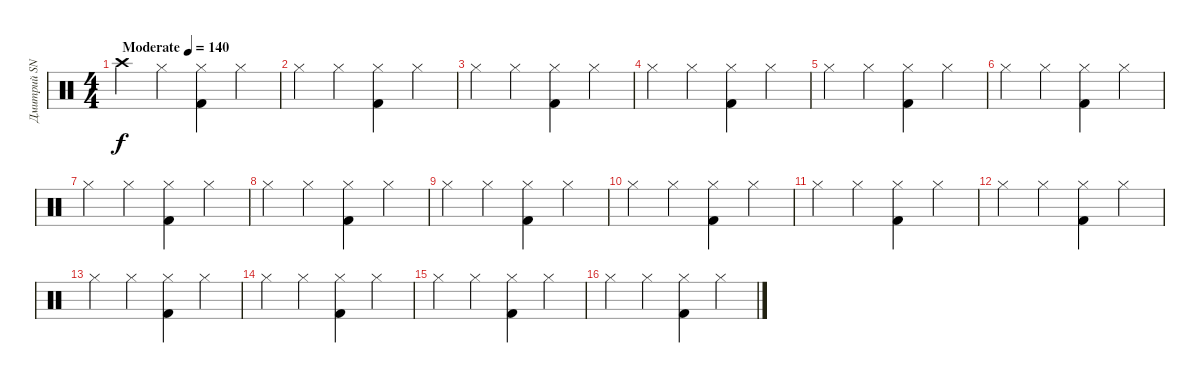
\track ("Дмитрий SNAKE Хакимов" "Дмитрий SN") {instrument percussion}
\staff {score}
\articulation defaults
\ts (4 4)
\tempo (140 "Moderate")
\clef neutral
\ks c "Crash high (hit)".4{dy f} "Hi-Hat (closed)".4
("Hi-Hat (closed)" "Kick (hit) 2").4 "Hi-Hat (closed)".4 |
"Hi-Hat (closed)".4 "Hi-Hat (closed)".4 ("Hi-Hat (closed)" "Kick (hit) 2").4 "Hi-Hat (closed)".4 |
"Hi-Hat (closed)".4 "Hi-Hat (closed)".4 ("Hi-Hat (closed)" "Kick (hit) 2").4 "Hi-Hat (closed)".4 |
"Hi-Hat (closed)".4 "Hi-Hat (closed)".4 ("Hi-Hat (closed)" "Kick (hit) 2").4 "Hi-Hat (closed)".4 |
"Hi-Hat (closed)".4 "Hi-Hat (closed)".4 ("Hi-Hat (closed)" "Kick (hit) 2").4 "Hi-Hat (closed)".4 |
"Hi-Hat (closed)".4 "Hi-Hat (closed)".4 ("Hi-Hat (closed)" "Kick (hit) 2").4 "Hi-Hat (closed)".4 |
"Hi-Hat (closed)".4 "Hi-Hat (closed)".4 ("Hi-Hat (closed)" "Kick (hit) 2").4 "Hi-Hat (closed)".4 |
"Hi-Hat (closed)".4 "Hi-Hat (closed)".4 ("Hi-Hat (closed)" "Kick (hit) 2").4 "Hi-Hat (closed)".4 |
"Hi-Hat (closed)".4 "Hi-Hat (closed)".4 ("Hi-Hat (closed)" "Kick (hit) 2").4 "Hi-Hat (closed)".4 |
"Hi-Hat (closed)".4 "Hi-Hat (closed)".4 ("Hi-Hat (closed)" "Kick (hit) 2").4 "Hi-Hat (closed)".4 |
"Hi-Hat (closed)".4 "Hi-Hat (closed)".4 ("Hi-Hat (closed)" "Kick (hit) 2").4 "Hi-Hat (closed)".4 |
"Hi-Hat (closed)".4 "Hi-Hat (closed)".4 ("Hi-Hat (closed)" "Kick (hit) 2").4 "Hi-Hat (closed)".4 |
"Hi-Hat (closed)".4 "Hi-Hat (closed)".4 ("Hi-Hat (closed)" "Kick (hit) 2").4 "Hi-Hat (closed)".4 |
"Hi-Hat (closed)".4 "Hi-Hat (closed)".4 ("Hi-Hat (closed)" "Kick (hit) 2").4 "Hi-Hat (closed)".4 |
"Hi-Hat (closed)".4 "Hi-Hat (closed)".4 ("Hi-Hat (closed)" "Kick (hit) 2").4 "Hi-Hat (closed)".4 |
"Hi-Hat (closed)".4 "Hi-Hat (closed)".4 ("Hi-Hat (closed)" "Kick (hit) 2").4 "Hi-Hat (closed)".4
